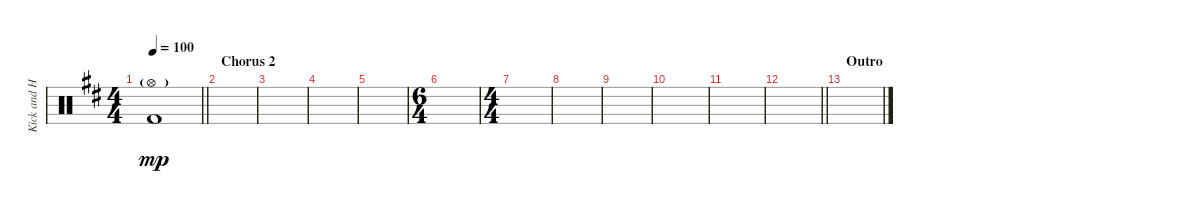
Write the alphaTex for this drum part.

\track ("Kick and HiHat" "Kick and H") {instrument percussion}
\staff {score}
\articulation defaults
\ts (4 4)
\tempo 100
\clef neutral
\barLineRight lightlight
\ks d
("Hi-Hat (open)"{g} "Kick (hit) 2").1{dy mp} |
\section ("" "Chorus 2")
|
|
|
|
\ts (6 4)
|
\ts (4 4)
|
|
|
|
|
\barLineRight lightlight
|
\section ("" "Outro")
